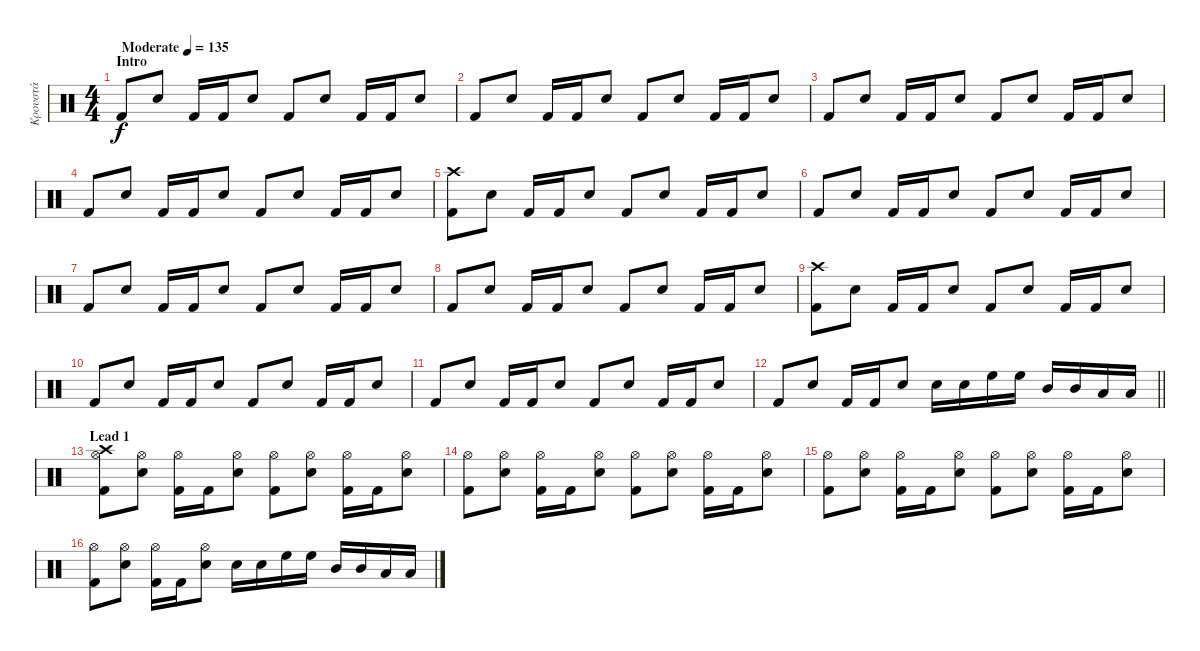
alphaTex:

\track ("Κρουστά" "Κρουστά") {instrument percussion}
\staff {score}
\articulation defaults
\ts (4 4)
\section ("" "Intro")
\tempo (135 "Moderate")
\clef neutral
\ks c "Kick (hit) 2".8{dy f} "Snare (hit) 2".8 "Kick (hit) 2".16 "Kick (hit) 2".16 "Snare (hit) 2".8 "Kick (hit) 2".8 "Snare (hit) 2".8 "Kick (hit) 2".16 "Kick (hit) 2".16 "Snare (hit) 2".8
|
"Kick (hit) 2".8 "Snare (hit) 2".8 "Kick (hit) 2".16 "Kick (hit) 2".16 "Snare (hit) 2".8 "Kick (hit) 2".8 "Snare (hit) 2".8 "Kick (hit) 2".16 "Kick (hit) 2".16 "Snare (hit) 2".8 |
"Kick (hit) 2".8 "Snare (hit) 2".8 "Kick (hit) 2".16 "Kick (hit) 2".16 "Snare (hit) 2".8 "Kick (hit) 2".8 "Snare (hit) 2".8 "Kick (hit) 2".16 "Kick (hit) 2".16 "Snare (hit) 2".8 |
"Kick (hit) 2".8 "Snare (hit) 2".8 "Kick (hit) 2".16 "Kick (hit) 2".16 "Snare (hit) 2".8 "Kick (hit) 2".8 "Snare (hit) 2".8 "Kick (hit) 2".16 "Kick (hit) 2".16 "Snare (hit) 2".8 |
("Crash high (hit)" "Kick (hit) 2").8 "Snare (hit) 2".8 "Kick (hit) 2".16 "Kick (hit) 2".16 "Snare (hit) 2".8 "Kick (hit) 2".8 "Snare (hit) 2".8 "Kick (hit) 2".16 "Kick (hit) 2".16 "Snare (hit) 2".8 |
"Kick (hit) 2".8 "Snare (hit) 2".8 "Kick (hit) 2".16 "Kick (hit) 2".16 "Snare (hit) 2".8 "Kick (hit) 2".8 "Snare (hit) 2".8 "Kick (hit) 2".16 "Kick (hit) 2".16 "Snare (hit) 2".8 |
"Kick (hit) 2".8 "Snare (hit) 2".8 "Kick (hit) 2".16 "Kick (hit) 2".16 "Snare (hit) 2".8 "Kick (hit) 2".8 "Snare (hit) 2".8 "Kick (hit) 2".16 "Kick (hit) 2".16 "Snare (hit) 2".8 |
"Kick (hit) 2".8 "Snare (hit) 2".8 "Kick (hit) 2".16 "Kick (hit) 2".16 "Snare (hit) 2".8 "Kick (hit) 2".8 "Snare (hit) 2".8 "Kick (hit) 2".16 "Kick (hit) 2".16 "Snare (hit) 2".8 |
("Crash high (hit)" "Kick (hit) 2").8 "Snare (hit) 2".8 "Kick (hit) 2".16 "Kick (hit) 2".16 "Snare (hit) 2".8 "Kick (hit) 2".8 "Snare (hit) 2".8 "Kick (hit) 2".16 "Kick (hit) 2".16 "Snare (hit) 2".8 |
"Kick (hit) 2".8 "Snare (hit) 2".8 "Kick (hit) 2".16 "Kick (hit) 2".16 "Snare (hit) 2".8 "Kick (hit) 2".8 "Snare (hit) 2".8 "Kick (hit) 2".16 "Kick (hit) 2".16 "Snare (hit) 2".8 |
"Kick (hit) 2".8 "Snare (hit) 2".8 "Kick (hit) 2".16 "Kick (hit) 2".16 "Snare (hit) 2".8 "Kick (hit) 2".8 "Snare (hit) 2".8 "Kick (hit) 2".16 "Kick (hit) 2".16 "Snare (hit) 2".8 |
\barLineRight lightlight "Kick (hit) 2".8 "Snare (hit) 2".8 "Kick (hit) 2".16 "Kick (hit) 2".16 "Snare (hit) 2".8 "Snare (hit) 2".16 "Snare (hit) 2".16 "High Floor Tom (hit)".16 "High Floor Tom (hit)".16 "Mid Tom (hit)".16 "Mid Tom (hit)".16 "Low Tom (hit)".16 "Low Tom (hit)".16
|
\section ("" "Lead 1")
("Crash high (hit)" "Hi-Hat (open)" "Kick (hit) 2").8 ("Snare (hit) 2" "Hi-Hat (open)").8 ("Hi-Hat (open)" "Kick (hit) 2").16 "Kick (hit) 2".16 ("Snare (hit) 2" "Hi-Hat (open)").8 ("Hi-Hat (open)" "Kick (hit) 2").8 ("Snare (hit) 2" "Hi-Hat (open)").8 ("Hi-Hat (open)" "Kick (hit) 2").16 "Kick (hit) 2".16 ("Snare (hit) 2" "Hi-Hat (open)").8 |
("Hi-Hat (open)" "Kick (hit) 2").8 ("Snare (hit) 2" "Hi-Hat (open)").8 ("Hi-Hat (open)" "Kick (hit) 2").16 "Kick (hit) 2".16 ("Snare (hit) 2" "Hi-Hat (open)").8 ("Hi-Hat (open)" "Kick (hit) 2").8 ("Snare (hit) 2" "Hi-Hat (open)").8 ("Hi-Hat (open)" "Kick (hit) 2").16 "Kick (hit) 2".16 ("Snare (hit) 2" "Hi-Hat (open)").8 |
("Hi-Hat (open)" "Kick (hit) 2").8 ("Snare (hit) 2" "Hi-Hat (open)").8 ("Hi-Hat (open)" "Kick (hit) 2").16 "Kick (hit) 2".16 ("Snare (hit) 2" "Hi-Hat (open)").8 ("Hi-Hat (open)" "Kick (hit) 2").8 ("Snare (hit) 2" "Hi-Hat (open)").8 ("Hi-Hat (open)" "Kick (hit) 2").16 "Kick (hit) 2".16 ("Snare (hit) 2" "Hi-Hat (open)").8 |
("Hi-Hat (open)" "Kick (hit) 2").8 ("Snare (hit) 2" "Hi-Hat (open)").8 ("Hi-Hat (open)" "Kick (hit) 2").16 "Kick (hit) 2".16 ("Snare (hit) 2" "Hi-Hat (open)").8 "Snare (hit) 2".16 "Snare (hit) 2".16 "High Floor Tom (hit)".16 "High Floor Tom (hit)".16 "Mid Tom (hit)".16 "Mid Tom (hit)".16 "Low Tom (hit)".16 "Low Tom (hit)".16
